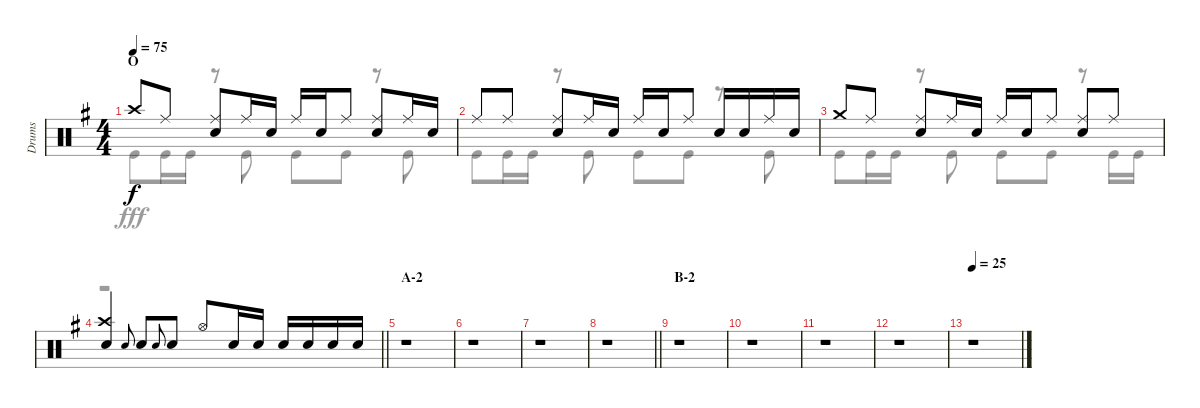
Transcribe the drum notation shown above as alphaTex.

\track ("Drums" "Drums") {instrument percussion}
\staff {score}
\articulation defaults
\voice
\ts (4 4)
\section ("" "O")
\tempo 75
\clef neutral
\ks g "Crash high (hit)".8{dy f} "Ride (middle)".8
("Ride (middle)" "Snare (hit) 2").8 "Ride (middle)".16 "Snare (hit) 2".16 "Ride (middle)".16 "Snare (hit) 2".16 "Ride (middle)".8 ("Ride (middle)" "Snare (hit) 2").8 "Ride (middle)".16 "Snare (hit) 2".16 |
"Ride (middle)".8 "Ride (middle)".8 ("Ride (middle)" "Snare (hit) 2").8 "Ride (middle)".16 "Snare (hit) 2".16 "Ride (middle)".16 "Snare (hit) 2".16 "Ride (middle)".8 "Snare (hit) 2".16 "Snare (hit) 2".16 "Ride (middle)".16 "Snare (hit) 2".16 |
"Crash medium (hit)".8 "Ride (middle)".8 ("Ride (middle)" "Snare (hit) 2").8 "Ride (middle)".16 "Snare (hit) 2".16 "Ride (middle)".16 "Snare (hit) 2".16 "Ride (middle)".8 ("Ride (middle)" "Snare (hit) 2").8 "Ride (middle)".8 |
\barLineRight lightlight
("Crash high (hit)" "Snare (hit) 2").4 "Snare (hit) 2".8{gr onbeat} "Snare (hit) 2".8 "Snare (hit) 2".8{gr onbeat} "Snare (hit) 2".8 "Hi-Hat (open)".8 "Snare (hit) 2".16 "Snare (hit) 2".16 "Snare (hit) 2".16 "Snare (hit) 2".16 "Snare (hit) 2".16 "Snare (hit) 2".16 |
\section ("" "A-2")
r.1 |
r.1 |
r.1 |
\barLineRight lightlight
r.1 |
\section ("" "B-2")
r.1 |
r.1 |
r.1 |
r.1 |
\tempo 25
r.1
\voice
\clef neutral
\ottava regular
\simile none
\ks g "Kick (hit)".8{dy fff} "Kick (hit)".16 "Kick (hit)".16
r.8 "Kick (hit)".8 "Kick (hit)".8 "Kick (hit)".8 r.8 "Kick (hit)".8 |
"Kick (hit)".8 "Kick (hit)".16 "Kick (hit)".16 r.8 "Kick (hit)".8 "Kick (hit)".8 "Kick (hit)".8 r.8 "Kick (hit)".8 |
"Kick (hit)".8 "Kick (hit)".16 "Kick (hit)".16 r.8 "Kick (hit)".8 "Kick (hit)".8 "Kick (hit)".8 r.8 "Kick (hit)".16 "Kick (hit)".16 |
\barLineRight lightlight
r.1 |
r.1 |
r.1 |
r.1 |
\barLineRight lightlight
r.1 |
r.1 |
r.1 |
r.1 |
r.1 |
r.1
